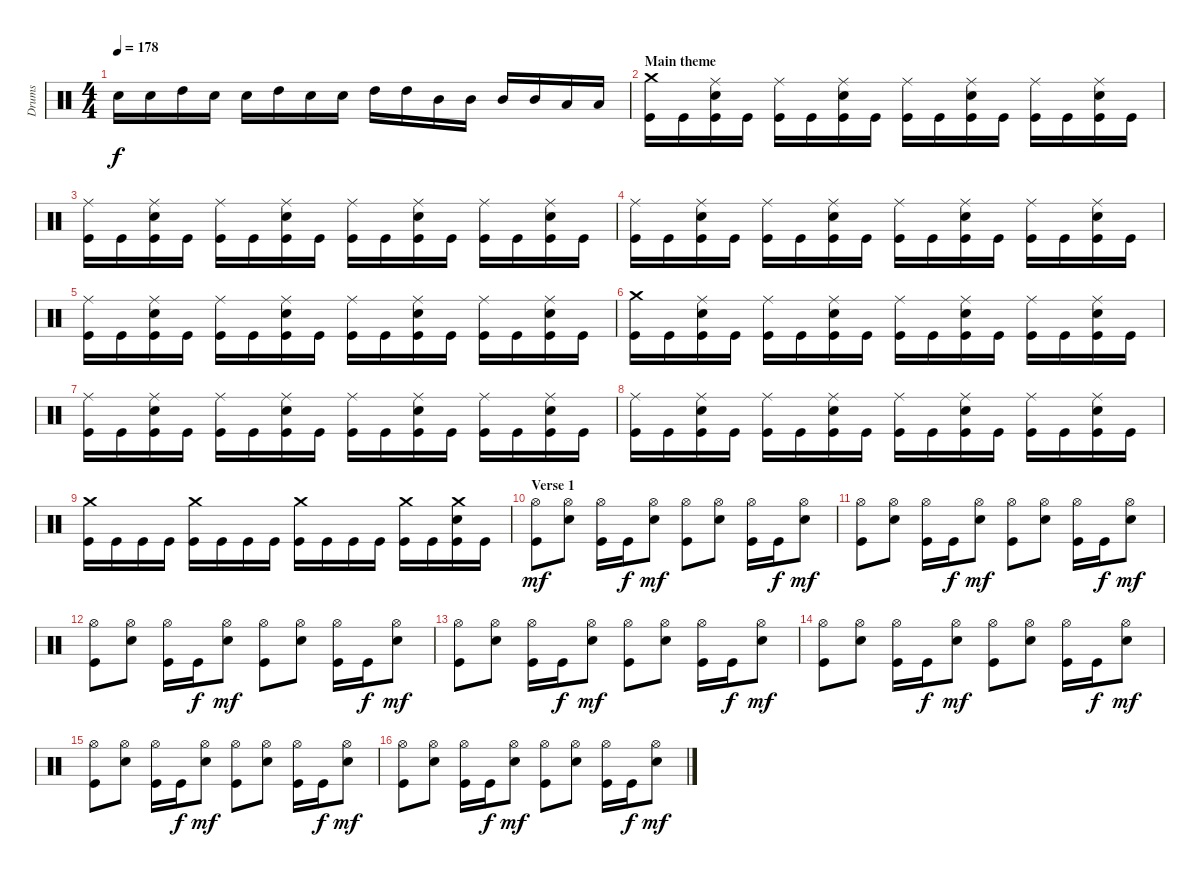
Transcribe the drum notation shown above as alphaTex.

\track ("Drums" "Drums") {instrument percussion}
\staff {score}
\articulation defaults
\ts (4 4)
\tempo 178
\clef neutral
\ks c "Electric Snare (hit)".16{dy f} "Electric Snare (hit)".16 "High Tom (hit)".16 "Electric Snare (hit)".16 "Electric Snare (hit)".16 "High Tom (hit)".16 "Electric Snare (hit)".16 "Electric Snare (hit)".16 "High Tom (hit)".16 "High Tom (hit)".16 "Mid Tom (hit)".16 "Mid Tom (hit)".16 "Mid Tom (hit)".16 "Mid Tom (hit)".16 "Low Tom (hit)".16 "Low Tom (hit)".16
|
\section ("" "Main theme")
("Crash medium (hit)" "Kick (hit)").16 "Kick (hit)".16 ("Ride (middle)" "Electric Snare (hit)" "Kick (hit)").16 "Kick (hit)".16 ("Ride (middle)" "Kick (hit)").16 "Kick (hit)".16 ("Ride (middle)" "Electric Snare (hit)" "Kick (hit)").16 "Kick (hit)".16 ("Ride (middle)" "Kick (hit)").16 "Kick (hit)".16 ("Ride (middle)" "Electric Snare (hit)" "Kick (hit)").16 "Kick (hit)".16 ("Ride (middle)" "Kick (hit)").16 "Kick (hit)".16 ("Ride (middle)" "Electric Snare (hit)" "Kick (hit)").16 "Kick (hit)".16 |
("Ride (middle)" "Kick (hit)").16 "Kick (hit)".16 ("Ride (middle)" "Electric Snare (hit)" "Kick (hit)").16 "Kick (hit)".16 ("Ride (middle)" "Kick (hit)").16 "Kick (hit)".16 ("Ride (middle)" "Electric Snare (hit)" "Kick (hit)").16 "Kick (hit)".16 ("Ride (middle)" "Kick (hit)").16 "Kick (hit)".16 ("Ride (middle)" "Electric Snare (hit)" "Kick (hit)").16 "Kick (hit)".16 ("Ride (middle)" "Kick (hit)").16 "Kick (hit)".16 ("Ride (middle)" "Electric Snare (hit)" "Kick (hit)").16 "Kick (hit)".16 |
("Ride (middle)" "Kick (hit)").16 "Kick (hit)".16 ("Ride (middle)" "Electric Snare (hit)" "Kick (hit)").16 "Kick (hit)".16 ("Ride (middle)" "Kick (hit)").16 "Kick (hit)".16 ("Ride (middle)" "Electric Snare (hit)" "Kick (hit)").16 "Kick (hit)".16 ("Ride (middle)" "Kick (hit)").16 "Kick (hit)".16 ("Ride (middle)" "Electric Snare (hit)" "Kick (hit)").16 "Kick (hit)".16 ("Ride (middle)" "Kick (hit)").16 "Kick (hit)".16 ("Ride (middle)" "Electric Snare (hit)" "Kick (hit)").16 "Kick (hit)".16 |
("Ride (middle)" "Kick (hit)").16 "Kick (hit)".16 ("Ride (middle)" "Electric Snare (hit)" "Kick (hit)").16 "Kick (hit)".16 ("Ride (middle)" "Kick (hit)").16 "Kick (hit)".16 ("Ride (middle)" "Electric Snare (hit)" "Kick (hit)").16 "Kick (hit)".16 ("Ride (middle)" "Kick (hit)").16 "Kick (hit)".16 ("Ride (middle)" "Electric Snare (hit)" "Kick (hit)").16 "Kick (hit)".16 ("Ride (middle)" "Kick (hit)").16 "Kick (hit)".16 ("Ride (middle)" "Electric Snare (hit)" "Kick (hit)").16 "Kick (hit)".16 |
("Crash medium (hit)" "Kick (hit)").16 "Kick (hit)".16 ("Ride (middle)" "Electric Snare (hit)" "Kick (hit)").16 "Kick (hit)".16 ("Ride (middle)" "Kick (hit)").16 "Kick (hit)".16 ("Ride (middle)" "Electric Snare (hit)" "Kick (hit)").16 "Kick (hit)".16 ("Ride (middle)" "Kick (hit)").16 "Kick (hit)".16 ("Ride (middle)" "Electric Snare (hit)" "Kick (hit)").16 "Kick (hit)".16 ("Ride (middle)" "Kick (hit)").16 "Kick (hit)".16 ("Ride (middle)" "Electric Snare (hit)" "Kick (hit)").16 "Kick (hit)".16 |
("Ride (middle)" "Kick (hit)").16 "Kick (hit)".16 ("Ride (middle)" "Electric Snare (hit)" "Kick (hit)").16 "Kick (hit)".16 ("Ride (middle)" "Kick (hit)").16 "Kick (hit)".16 ("Ride (middle)" "Electric Snare (hit)" "Kick (hit)").16 "Kick (hit)".16 ("Ride (middle)" "Kick (hit)").16 "Kick (hit)".16 ("Ride (middle)" "Electric Snare (hit)" "Kick (hit)").16 "Kick (hit)".16 ("Ride (middle)" "Kick (hit)").16 "Kick (hit)".16 ("Ride (middle)" "Electric Snare (hit)" "Kick (hit)").16 "Kick (hit)".16 |
("Ride (middle)" "Kick (hit)").16 "Kick (hit)".16 ("Ride (middle)" "Electric Snare (hit)" "Kick (hit)").16 "Kick (hit)".16 ("Ride (middle)" "Kick (hit)").16 "Kick (hit)".16 ("Ride (middle)" "Electric Snare (hit)" "Kick (hit)").16 "Kick (hit)".16 ("Ride (middle)" "Kick (hit)").16 "Kick (hit)".16 ("Ride (middle)" "Electric Snare (hit)" "Kick (hit)").16 "Kick (hit)".16 ("Ride (middle)" "Kick (hit)").16 "Kick (hit)".16 ("Ride (middle)" "Electric Snare (hit)" "Kick (hit)").16 "Kick (hit)".16 |
("Crash medium (hit)" "Kick (hit)").16 "Kick (hit)".16 "Kick (hit)".16 "Kick (hit)".16 ("Crash medium (hit)" "Kick (hit)").16 "Kick (hit)".16 "Kick (hit)".16 "Kick (hit)".16 ("Crash medium (hit)" "Kick (hit)").16 "Kick (hit)".16 "Kick (hit)".16 "Kick (hit)".16 ("Crash medium (hit)" "Kick (hit)").16 "Kick (hit)".16 ("Crash medium (hit)" "Electric Snare (hit)" "Kick (hit)").16 "Kick (hit)".16 |
\section ("" "Verse 1")
("Hi-Hat (open)" "Kick (hit)").8{dy mf} ("Hi-Hat (open)" "Electric Snare (hit)").8 ("Hi-Hat (open)" "Kick (hit)").16 "Kick (hit)".16{dy f} ("Hi-Hat (open)" "Electric Snare (hit)").8{dy mf} ("Hi-Hat (open)" "Kick (hit)").8 ("Hi-Hat (open)" "Electric Snare (hit)").8 ("Hi-Hat (open)" "Kick (hit)").16 "Kick (hit)".16{dy f} ("Hi-Hat (open)" "Electric Snare (hit)").8{dy mf} |
("Hi-Hat (open)" "Kick (hit)").8 ("Hi-Hat (open)" "Electric Snare (hit)").8 ("Hi-Hat (open)" "Kick (hit)").16 "Kick (hit)".16{dy f} ("Hi-Hat (open)" "Electric Snare (hit)").8{dy mf} ("Hi-Hat (open)" "Kick (hit)").8 ("Hi-Hat (open)" "Electric Snare (hit)").8 ("Hi-Hat (open)" "Kick (hit)").16 "Kick (hit)".16{dy f} ("Hi-Hat (open)" "Electric Snare (hit)").8{dy mf} |
("Hi-Hat (open)" "Kick (hit)").8 ("Hi-Hat (open)" "Electric Snare (hit)").8 ("Hi-Hat (open)" "Kick (hit)").16 "Kick (hit)".16{dy f} ("Hi-Hat (open)" "Electric Snare (hit)").8{dy mf} ("Hi-Hat (open)" "Kick (hit)").8 ("Hi-Hat (open)" "Electric Snare (hit)").8 ("Hi-Hat (open)" "Kick (hit)").16 "Kick (hit)".16{dy f} ("Hi-Hat (open)" "Electric Snare (hit)").8{dy mf} |
("Hi-Hat (open)" "Kick (hit)").8 ("Hi-Hat (open)" "Electric Snare (hit)").8 ("Hi-Hat (open)" "Kick (hit)").16 "Kick (hit)".16{dy f} ("Hi-Hat (open)" "Electric Snare (hit)").8{dy mf} ("Hi-Hat (open)" "Kick (hit)").8 ("Hi-Hat (open)" "Electric Snare (hit)").8 ("Hi-Hat (open)" "Kick (hit)").16 "Kick (hit)".16{dy f} ("Hi-Hat (open)" "Electric Snare (hit)").8{dy mf} |
("Hi-Hat (open)" "Kick (hit)").8 ("Hi-Hat (open)" "Electric Snare (hit)").8 ("Hi-Hat (open)" "Kick (hit)").16 "Kick (hit)".16{dy f} ("Hi-Hat (open)" "Electric Snare (hit)").8{dy mf} ("Hi-Hat (open)" "Kick (hit)").8 ("Hi-Hat (open)" "Electric Snare (hit)").8 ("Hi-Hat (open)" "Kick (hit)").16 "Kick (hit)".16{dy f} ("Hi-Hat (open)" "Electric Snare (hit)").8{dy mf} |
("Hi-Hat (open)" "Kick (hit)").8 ("Hi-Hat (open)" "Electric Snare (hit)").8 ("Hi-Hat (open)" "Kick (hit)").16 "Kick (hit)".16{dy f} ("Hi-Hat (open)" "Electric Snare (hit)").8{dy mf} ("Hi-Hat (open)" "Kick (hit)").8 ("Hi-Hat (open)" "Electric Snare (hit)").8 ("Hi-Hat (open)" "Kick (hit)").16 "Kick (hit)".16{dy f} ("Hi-Hat (open)" "Electric Snare (hit)").8{dy mf} |
("Hi-Hat (open)" "Kick (hit)").8 ("Hi-Hat (open)" "Electric Snare (hit)").8 ("Hi-Hat (open)" "Kick (hit)").16 "Kick (hit)".16{dy f} ("Hi-Hat (open)" "Electric Snare (hit)").8{dy mf} ("Hi-Hat (open)" "Kick (hit)").8 ("Hi-Hat (open)" "Electric Snare (hit)").8 ("Hi-Hat (open)" "Kick (hit)").16 "Kick (hit)".16{dy f} ("Hi-Hat (open)" "Electric Snare (hit)").8{dy mf}
